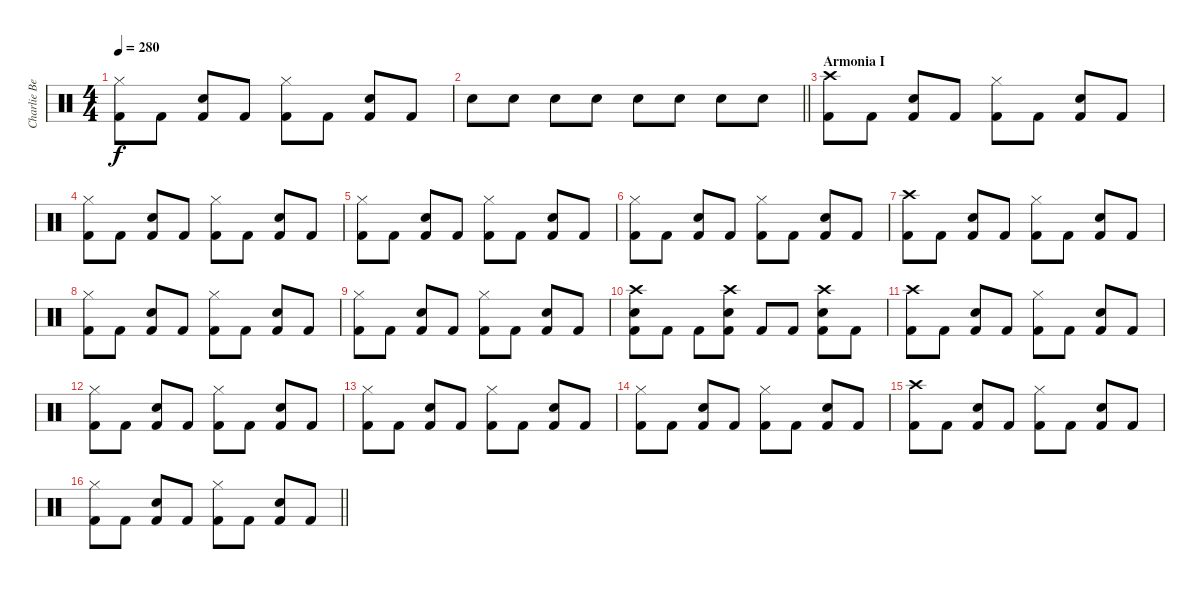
\track ("Charlie Benante" "Charlie Be") {instrument percussion}
\staff {score}
\articulation defaults
\ts (4 4)
\tempo 280
\clef neutral
\ks c
("Hi-Hat (closed)" "Kick (hit) 2").8{dy f} "Kick (hit) 2".8 ("Snare (hit) 2" "Kick (hit) 2").8 "Kick (hit) 2".8 ("Hi-Hat (closed)" "Kick (hit) 2").8 "Kick (hit) 2".8 ("Snare (hit) 2" "Kick (hit) 2").8 "Kick (hit) 2".8 |
\barLineRight lightlight "Snare (hit) 2".8 "Snare (hit) 2".8 "Snare (hit) 2".8 "Snare (hit) 2".8 "Snare (hit) 2".8 "Snare (hit) 2".8 "Snare (hit) 2".8 "Snare (hit) 2".8
|
\section ("" "Armonia I")
("Crash high (hit)" "Kick (hit) 2").8 "Kick (hit) 2".8 ("Snare (hit) 2" "Kick (hit) 2").8 "Kick (hit) 2".8 ("Hi-Hat (closed)" "Kick (hit) 2").8 "Kick (hit) 2".8 ("Snare (hit) 2" "Kick (hit) 2").8 "Kick (hit) 2".8 |
("Hi-Hat (closed)" "Kick (hit) 2").8 "Kick (hit) 2".8 ("Snare (hit) 2" "Kick (hit) 2").8 "Kick (hit) 2".8 ("Hi-Hat (closed)" "Kick (hit) 2").8 "Kick (hit) 2".8 ("Snare (hit) 2" "Kick (hit) 2").8 "Kick (hit) 2".8 |
("Hi-Hat (closed)" "Kick (hit) 2").8 "Kick (hit) 2".8 ("Snare (hit) 2" "Kick (hit) 2").8 "Kick (hit) 2".8 ("Hi-Hat (closed)" "Kick (hit) 2").8 "Kick (hit) 2".8 ("Snare (hit) 2" "Kick (hit) 2").8 "Kick (hit) 2".8 |
("Hi-Hat (closed)" "Kick (hit) 2").8 "Kick (hit) 2".8 ("Snare (hit) 2" "Kick (hit) 2").8 "Kick (hit) 2".8 ("Hi-Hat (closed)" "Kick (hit) 2").8 "Kick (hit) 2".8 ("Snare (hit) 2" "Kick (hit) 2").8 "Kick (hit) 2".8 |
("Crash high (hit)" "Kick (hit) 2").8 "Kick (hit) 2".8 ("Snare (hit) 2" "Kick (hit) 2").8 "Kick (hit) 2".8 ("Hi-Hat (closed)" "Kick (hit) 2").8 "Kick (hit) 2".8 ("Snare (hit) 2" "Kick (hit) 2").8 "Kick (hit) 2".8 |
("Hi-Hat (closed)" "Kick (hit) 2").8 "Kick (hit) 2".8 ("Snare (hit) 2" "Kick (hit) 2").8 "Kick (hit) 2".8 ("Hi-Hat (closed)" "Kick (hit) 2").8 "Kick (hit) 2".8 ("Snare (hit) 2" "Kick (hit) 2").8 "Kick (hit) 2".8 |
("Hi-Hat (closed)" "Kick (hit) 2").8 "Kick (hit) 2".8 ("Snare (hit) 2" "Kick (hit) 2").8 "Kick (hit) 2".8 ("Hi-Hat (closed)" "Kick (hit) 2").8 "Kick (hit) 2".8 ("Snare (hit) 2" "Kick (hit) 2").8 "Kick (hit) 2".8 |
("Crash high (hit)" "Snare (hit) 2" "Kick (hit) 2").8 "Kick (hit) 2".8 "Kick (hit) 2".8 ("Crash high (hit)" "Snare (hit) 2" "Kick (hit) 2").8 "Kick (hit) 2".8 "Kick (hit) 2".8 ("Crash high (hit)" "Snare (hit) 2" "Kick (hit) 2").8 "Kick (hit) 2".8 |
("Crash high (hit)" "Kick (hit) 2").8 "Kick (hit) 2".8 ("Snare (hit) 2" "Kick (hit) 2").8 "Kick (hit) 2".8 ("Hi-Hat (closed)" "Kick (hit) 2").8 "Kick (hit) 2".8 ("Snare (hit) 2" "Kick (hit) 2").8 "Kick (hit) 2".8 |
("Hi-Hat (closed)" "Kick (hit) 2").8 "Kick (hit) 2".8 ("Snare (hit) 2" "Kick (hit) 2").8 "Kick (hit) 2".8 ("Hi-Hat (closed)" "Kick (hit) 2").8 "Kick (hit) 2".8 ("Snare (hit) 2" "Kick (hit) 2").8 "Kick (hit) 2".8 |
("Hi-Hat (closed)" "Kick (hit) 2").8 "Kick (hit) 2".8 ("Snare (hit) 2" "Kick (hit) 2").8 "Kick (hit) 2".8 ("Hi-Hat (closed)" "Kick (hit) 2").8 "Kick (hit) 2".8 ("Snare (hit) 2" "Kick (hit) 2").8 "Kick (hit) 2".8 |
("Hi-Hat (closed)" "Kick (hit) 2").8 "Kick (hit) 2".8 ("Snare (hit) 2" "Kick (hit) 2").8 "Kick (hit) 2".8 ("Hi-Hat (closed)" "Kick (hit) 2").8 "Kick (hit) 2".8 ("Snare (hit) 2" "Kick (hit) 2").8 "Kick (hit) 2".8 |
("Crash high (hit)" "Kick (hit) 2").8 "Kick (hit) 2".8 ("Snare (hit) 2" "Kick (hit) 2").8 "Kick (hit) 2".8 ("Hi-Hat (closed)" "Kick (hit) 2").8 "Kick (hit) 2".8 ("Snare (hit) 2" "Kick (hit) 2").8 "Kick (hit) 2".8 |
\barLineRight lightlight
("Hi-Hat (closed)" "Kick (hit) 2").8 "Kick (hit) 2".8 ("Snare (hit) 2" "Kick (hit) 2").8 "Kick (hit) 2".8 ("Hi-Hat (closed)" "Kick (hit) 2").8 "Kick (hit) 2".8 ("Snare (hit) 2" "Kick (hit) 2").8 "Kick (hit) 2".8
